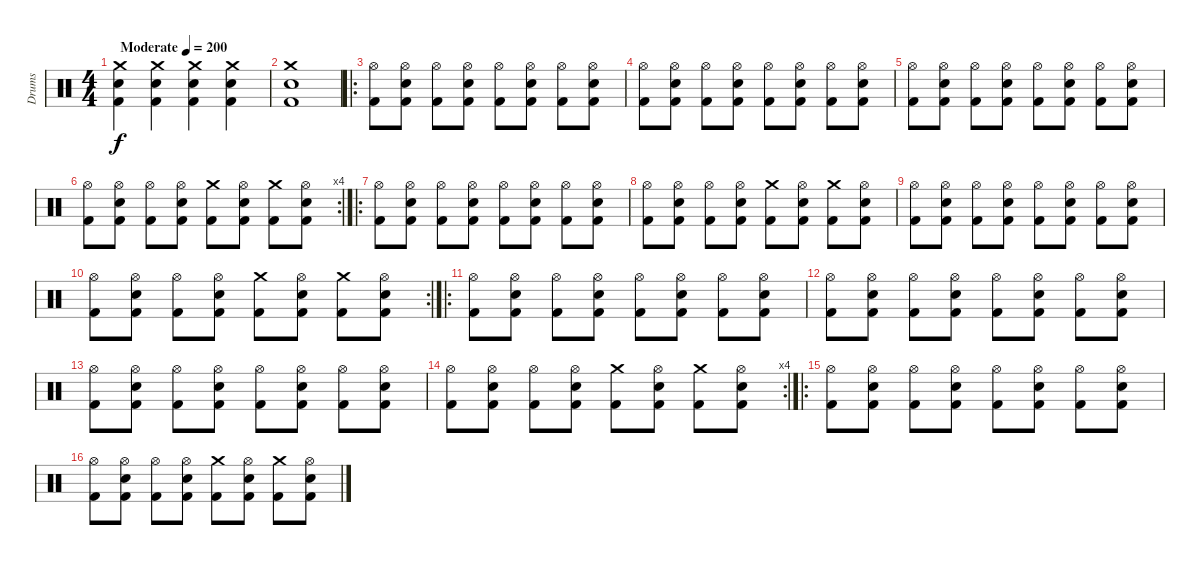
\track ("Drums" "Drums") {instrument percussion}
\staff {score}
\articulation defaults
\ts (4 4)
\tempo (200 "Moderate")
\clef neutral
\ks c
("Crash medium (hit)" "Snare (hit) 2" "Kick (hit) 2").4{dy f} ("Crash medium (hit)" "Snare (hit) 2" "Kick (hit) 2").4 ("Crash medium (hit)" "Snare (hit) 2" "Kick (hit) 2").4 ("Crash medium (hit)" "Snare (hit) 2" "Kick (hit) 2").4 |
("Crash medium (hit)" "Electric Snare (hit)" "Kick (hit) 2").1 |
\ro
("Hi-Hat (open)" "Kick (hit) 2").8 ("Hi-Hat (open)" "Electric Snare (hit)" "Kick (hit) 2").8 ("Hi-Hat (open)" "Kick (hit) 2").8 ("Hi-Hat (open)" "Electric Snare (hit)" "Kick (hit) 2").8 ("Hi-Hat (open)" "Kick (hit) 2").8 ("Hi-Hat (open)" "Electric Snare (hit)" "Kick (hit) 2").8 ("Hi-Hat (open)" "Kick (hit) 2").8 ("Hi-Hat (open)" "Electric Snare (hit)" "Kick (hit) 2").8 |
("Hi-Hat (open)" "Kick (hit) 2").8 ("Hi-Hat (open)" "Electric Snare (hit)" "Kick (hit) 2").8 ("Hi-Hat (open)" "Kick (hit) 2").8 ("Hi-Hat (open)" "Electric Snare (hit)" "Kick (hit) 2").8 ("Hi-Hat (open)" "Kick (hit) 2").8 ("Hi-Hat (open)" "Electric Snare (hit)" "Kick (hit) 2").8 ("Hi-Hat (open)" "Kick (hit) 2").8 ("Hi-Hat (open)" "Electric Snare (hit)" "Kick (hit) 2").8 |
("Hi-Hat (open)" "Kick (hit) 2").8 ("Hi-Hat (open)" "Electric Snare (hit)" "Kick (hit) 2").8 ("Hi-Hat (open)" "Kick (hit) 2").8 ("Hi-Hat (open)" "Electric Snare (hit)" "Kick (hit) 2").8 ("Hi-Hat (open)" "Kick (hit) 2").8 ("Hi-Hat (open)" "Electric Snare (hit)" "Kick (hit) 2").8 ("Hi-Hat (open)" "Kick (hit) 2").8 ("Hi-Hat (open)" "Electric Snare (hit)" "Kick (hit) 2").8 |
\rc 4
("Hi-Hat (open)" "Kick (hit) 2").8 ("Hi-Hat (open)" "Electric Snare (hit)" "Kick (hit) 2").8 ("Hi-Hat (open)" "Kick (hit) 2").8 ("Hi-Hat (open)" "Electric Snare (hit)" "Kick (hit) 2").8 ("Crash medium (hit)" "Kick (hit) 2").8 ("Hi-Hat (open)" "Electric Snare (hit)" "Kick (hit) 2").8 ("Crash medium (hit)" "Kick (hit) 2").8 ("Hi-Hat (open)" "Electric Snare (hit)" "Kick (hit) 2").8 |
\ro
("Hi-Hat (open)" "Kick (hit) 2").8 ("Hi-Hat (open)" "Electric Snare (hit)" "Kick (hit) 2").8 ("Hi-Hat (open)" "Kick (hit) 2").8 ("Hi-Hat (open)" "Electric Snare (hit)" "Kick (hit) 2").8 ("Hi-Hat (open)" "Kick (hit) 2").8 ("Hi-Hat (open)" "Electric Snare (hit)" "Kick (hit) 2").8 ("Hi-Hat (open)" "Kick (hit) 2").8 ("Hi-Hat (open)" "Electric Snare (hit)" "Kick (hit) 2").8 |
("Hi-Hat (open)" "Kick (hit) 2").8 ("Hi-Hat (open)" "Electric Snare (hit)" "Kick (hit) 2").8 ("Hi-Hat (open)" "Kick (hit) 2").8 ("Hi-Hat (open)" "Electric Snare (hit)" "Kick (hit) 2").8 ("Crash medium (hit)" "Kick (hit) 2").8 ("Hi-Hat (open)" "Electric Snare (hit)" "Kick (hit) 2").8 ("Crash medium (hit)" "Kick (hit) 2").8 ("Hi-Hat (open)" "Electric Snare (hit)" "Kick (hit) 2").8 |
("Hi-Hat (open)" "Kick (hit) 2").8 ("Hi-Hat (open)" "Electric Snare (hit)" "Kick (hit) 2").8 ("Hi-Hat (open)" "Kick (hit) 2").8 ("Hi-Hat (open)" "Electric Snare (hit)" "Kick (hit) 2").8 ("Hi-Hat (open)" "Kick (hit) 2").8 ("Hi-Hat (open)" "Electric Snare (hit)" "Kick (hit) 2").8 ("Hi-Hat (open)" "Kick (hit) 2").8 ("Hi-Hat (open)" "Electric Snare (hit)" "Kick (hit) 2").8 |
\rc 2
("Hi-Hat (open)" "Kick (hit) 2").8 ("Hi-Hat (open)" "Electric Snare (hit)" "Kick (hit) 2").8 ("Hi-Hat (open)" "Kick (hit) 2").8 ("Hi-Hat (open)" "Electric Snare (hit)" "Kick (hit) 2").8 ("Crash medium (hit)" "Kick (hit) 2").8 ("Hi-Hat (open)" "Electric Snare (hit)" "Kick (hit) 2").8 ("Crash medium (hit)" "Kick (hit) 2").8 ("Hi-Hat (open)" "Electric Snare (hit)" "Kick (hit) 2").8 |
\ro
("Hi-Hat (open)" "Kick (hit) 2").8 ("Hi-Hat (open)" "Electric Snare (hit)" "Kick (hit) 2").8 ("Hi-Hat (open)" "Kick (hit) 2").8 ("Hi-Hat (open)" "Electric Snare (hit)" "Kick (hit) 2").8 ("Hi-Hat (open)" "Kick (hit) 2").8 ("Hi-Hat (open)" "Electric Snare (hit)" "Kick (hit) 2").8 ("Hi-Hat (open)" "Kick (hit) 2").8 ("Hi-Hat (open)" "Electric Snare (hit)" "Kick (hit) 2").8 |
("Hi-Hat (open)" "Kick (hit) 2").8 ("Hi-Hat (open)" "Electric Snare (hit)" "Kick (hit) 2").8 ("Hi-Hat (open)" "Kick (hit) 2").8 ("Hi-Hat (open)" "Electric Snare (hit)" "Kick (hit) 2").8 ("Hi-Hat (open)" "Kick (hit) 2").8 ("Hi-Hat (open)" "Electric Snare (hit)" "Kick (hit) 2").8 ("Hi-Hat (open)" "Kick (hit) 2").8 ("Hi-Hat (open)" "Electric Snare (hit)" "Kick (hit) 2").8 |
("Hi-Hat (open)" "Kick (hit) 2").8 ("Hi-Hat (open)" "Electric Snare (hit)" "Kick (hit) 2").8 ("Hi-Hat (open)" "Kick (hit) 2").8 ("Hi-Hat (open)" "Electric Snare (hit)" "Kick (hit) 2").8 ("Hi-Hat (open)" "Kick (hit) 2").8 ("Hi-Hat (open)" "Electric Snare (hit)" "Kick (hit) 2").8 ("Hi-Hat (open)" "Kick (hit) 2").8 ("Hi-Hat (open)" "Electric Snare (hit)" "Kick (hit) 2").8 |
\rc 4
("Hi-Hat (open)" "Kick (hit) 2").8 ("Hi-Hat (open)" "Electric Snare (hit)" "Kick (hit) 2").8 ("Hi-Hat (open)" "Kick (hit) 2").8 ("Hi-Hat (open)" "Electric Snare (hit)" "Kick (hit) 2").8 ("Crash medium (hit)" "Kick (hit) 2").8 ("Hi-Hat (open)" "Electric Snare (hit)" "Kick (hit) 2").8 ("Crash medium (hit)" "Kick (hit) 2").8 ("Hi-Hat (open)" "Electric Snare (hit)" "Kick (hit) 2").8 |
\ro
("Hi-Hat (open)" "Kick (hit) 2").8 ("Hi-Hat (open)" "Electric Snare (hit)" "Kick (hit) 2").8 ("Hi-Hat (open)" "Kick (hit) 2").8 ("Hi-Hat (open)" "Electric Snare (hit)" "Kick (hit) 2").8 ("Hi-Hat (open)" "Kick (hit) 2").8 ("Hi-Hat (open)" "Electric Snare (hit)" "Kick (hit) 2").8 ("Hi-Hat (open)" "Kick (hit) 2").8 ("Hi-Hat (open)" "Electric Snare (hit)" "Kick (hit) 2").8 |
("Hi-Hat (open)" "Kick (hit) 2").8 ("Hi-Hat (open)" "Electric Snare (hit)" "Kick (hit) 2").8 ("Hi-Hat (open)" "Kick (hit) 2").8 ("Hi-Hat (open)" "Electric Snare (hit)" "Kick (hit) 2").8 ("Crash medium (hit)" "Kick (hit) 2").8 ("Hi-Hat (open)" "Electric Snare (hit)" "Kick (hit) 2").8 ("Crash medium (hit)" "Kick (hit) 2").8 ("Hi-Hat (open)" "Electric Snare (hit)" "Kick (hit) 2").8
